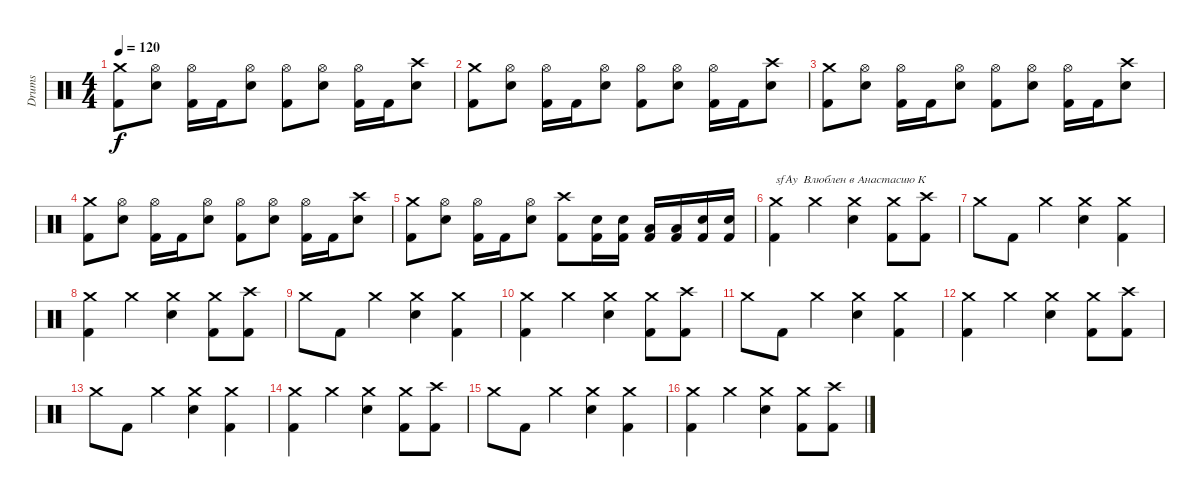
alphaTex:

\track ("Drums" "Drums") {instrument percussion}
\staff {score}
\articulation defaults
\ts (4 4)
\tempo 120
\clef neutral
\ks c
("Crash medium (hit)" "Kick (hit) 2").8{dy f} ("Hi-Hat (open)" "Electric Snare (hit)").8 ("Hi-Hat (open)" "Kick (hit) 2").16 "Kick (hit) 2".16 ("Hi-Hat (open)" "Electric Snare (hit)").8 ("Hi-Hat (open)" "Kick (hit) 2").8 ("Hi-Hat (open)" "Electric Snare (hit)").8 ("Hi-Hat (open)" "Kick (hit) 2").16 "Kick (hit) 2".16 ("Crash high (hit)" "Electric Snare (hit)").8 |
("Crash medium (hit)" "Kick (hit) 2").8 ("Hi-Hat (open)" "Electric Snare (hit)").8 ("Hi-Hat (open)" "Kick (hit) 2").16 "Kick (hit) 2".16 ("Hi-Hat (open)" "Electric Snare (hit)").8 ("Hi-Hat (open)" "Kick (hit) 2").8 ("Hi-Hat (open)" "Electric Snare (hit)").8 ("Hi-Hat (open)" "Kick (hit) 2").16 "Kick (hit) 2".16 ("Crash high (hit)" "Electric Snare (hit)").8 |
("Crash medium (hit)" "Kick (hit) 2").8 ("Hi-Hat (open)" "Electric Snare (hit)").8 ("Hi-Hat (open)" "Kick (hit) 2").16 "Kick (hit) 2".16 ("Hi-Hat (open)" "Electric Snare (hit)").8 ("Hi-Hat (open)" "Kick (hit) 2").8 ("Hi-Hat (open)" "Electric Snare (hit)").8 ("Hi-Hat (open)" "Kick (hit) 2").16 "Kick (hit) 2".16 ("Crash high (hit)" "Electric Snare (hit)").8 |
("Crash medium (hit)" "Kick (hit) 2").8 ("Hi-Hat (open)" "Electric Snare (hit)").8 ("Hi-Hat (open)" "Kick (hit) 2").16 "Kick (hit) 2".16 ("Hi-Hat (open)" "Electric Snare (hit)").8 ("Hi-Hat (open)" "Kick (hit) 2").8 ("Hi-Hat (open)" "Electric Snare (hit)").8 ("Hi-Hat (open)" "Kick (hit) 2").16 "Kick (hit) 2".16 ("Crash high (hit)" "Electric Snare (hit)").8 |
("Crash medium (hit)" "Kick (hit) 2").8 ("Hi-Hat (open)" "Electric Snare (hit)").8 ("Hi-Hat (open)" "Kick (hit) 2").16 "Kick (hit) 2".16 ("Hi-Hat (open)" "Electric Snare (hit)").8 ("Crash high (hit)" "Kick (hit) 2").8 ("Electric Snare (hit)" "Kick (hit) 2").16 ("Electric Snare (hit)" "Kick (hit) 2").16 ("Low Tom (hit)" "Kick (hit) 2").16 ("Low Tom (hit)" "Kick (hit) 2").16 ("Electric Snare (hit)" "Kick (hit) 2").16 ("Electric Snare (hit)" "Kick (hit) 2").16 |
("Crash medium (hit)" "Kick (hit) 2").4{txt "sfAy  Влюблен в Анастасию К"} "Crash medium (hit)".4 ("Crash medium (hit)" "Electric Snare (hit)").4 ("Crash medium (hit)" "Kick (hit) 2").8 ("Crash high (hit)" "Kick (hit) 2").8 |
"Crash medium (hit)".8 "Kick (hit) 2".8 "Crash medium (hit)".4 ("Crash medium (hit)" "Electric Snare (hit)").4 ("Crash medium (hit)" "Kick (hit) 2").4 |
("Crash medium (hit)" "Kick (hit) 2").4 "Crash medium (hit)".4 ("Crash medium (hit)" "Electric Snare (hit)").4 ("Crash medium (hit)" "Kick (hit) 2").8 ("Crash high (hit)" "Kick (hit) 2").8 |
"Crash medium (hit)".8 "Kick (hit) 2".8 "Crash medium (hit)".4 ("Crash medium (hit)" "Electric Snare (hit)").4 ("Crash medium (hit)" "Kick (hit) 2").4 |
("Crash medium (hit)" "Kick (hit) 2").4 "Crash medium (hit)".4 ("Crash medium (hit)" "Electric Snare (hit)").4 ("Crash medium (hit)" "Kick (hit) 2").8 ("Crash high (hit)" "Kick (hit) 2").8 |
"Crash medium (hit)".8 "Kick (hit) 2".8 "Crash medium (hit)".4 ("Crash medium (hit)" "Electric Snare (hit)").4 ("Crash medium (hit)" "Kick (hit) 2").4 |
("Crash medium (hit)" "Kick (hit) 2").4 "Crash medium (hit)".4 ("Crash medium (hit)" "Electric Snare (hit)").4 ("Crash medium (hit)" "Kick (hit) 2").8 ("Crash high (hit)" "Kick (hit) 2").8 |
"Crash medium (hit)".8 "Kick (hit) 2".8 "Crash medium (hit)".4 ("Crash medium (hit)" "Electric Snare (hit)").4 ("Crash medium (hit)" "Kick (hit) 2").4 |
("Crash medium (hit)" "Kick (hit) 2").4 "Crash medium (hit)".4 ("Crash medium (hit)" "Electric Snare (hit)").4 ("Crash medium (hit)" "Kick (hit) 2").8 ("Crash high (hit)" "Kick (hit) 2").8 |
"Crash medium (hit)".8 "Kick (hit) 2".8 "Crash medium (hit)".4 ("Crash medium (hit)" "Electric Snare (hit)").4 ("Crash medium (hit)" "Kick (hit) 2").4 |
("Crash medium (hit)" "Kick (hit) 2").4 "Crash medium (hit)".4 ("Crash medium (hit)" "Electric Snare (hit)").4 ("Crash medium (hit)" "Kick (hit) 2").8 ("Crash high (hit)" "Kick (hit) 2").8
